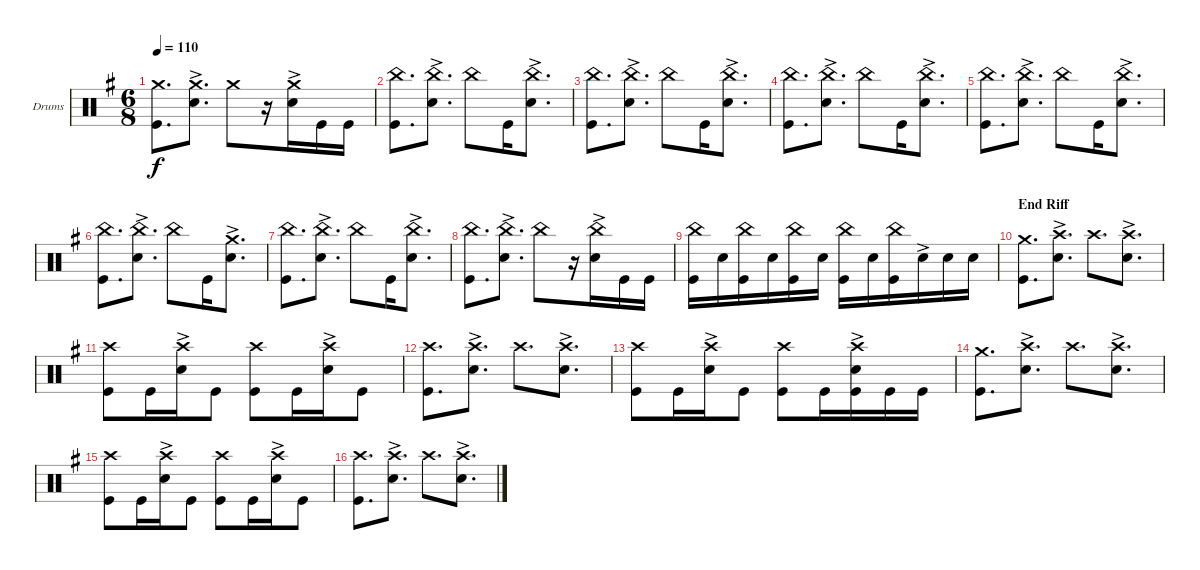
\bracketExtendMode groupsimilarinstruments
\firstSystemTrackNameOrientation horizontal
\otherSystemsTrackNameOrientation horizontal
\track ("Drumkit" "Drums") {instrument percussion}
\staff {score}
\articulation defaults
\ts (6 8)
\tempo 110
\clef neutral
\ks eminor
("Kick (hit)" "Crash medium (hit)").8{d dy f} ("Snare (hit) 2"{ac} "Crash medium (hit)").8{d} "Crash medium (hit)".8 r.16 ("Snare (hit) 2"{ac} "Crash medium (hit)").16 "Kick (hit)".16 "Kick (hit)".16 |
("Kick (hit)" "China (hit)").8{d} ("Snare (hit) 2"{ac} "China (hit)").8{d} "China (hit)".8 "Kick (hit)".16 ("Snare (hit) 2"{ac} "China (hit)").8{d} |
("Kick (hit)" "China (hit)").8{d} ("Snare (hit) 2"{ac} "China (hit)").8{d} "China (hit)".8 "Kick (hit)".16 ("Snare (hit) 2"{ac} "China (hit)").8{d} |
("Kick (hit)" "China (hit)").8{d} ("Snare (hit) 2"{ac} "China (hit)").8{d} "China (hit)".8 "Kick (hit)".16 ("Snare (hit) 2"{ac} "China (hit)").8{d} |
("Kick (hit)" "China (hit)").8{d} ("Snare (hit) 2"{ac} "China (hit)").8{d} "China (hit)".8 "Kick (hit)".16 ("Snare (hit) 2"{ac} "China (hit)").8{d} |
("Kick (hit)" "China (hit)").8{d} ("Snare (hit) 2"{ac} "China (hit)").8{d} "China (hit)".8 "Kick (hit)".16 ("Snare (hit) 2"{ac} "Crash medium (hit)").8{d} |
("Kick (hit)" "China (hit)").8{d} ("Snare (hit) 2"{ac} "China (hit)").8{d} "China (hit)".8 "Kick (hit)".16 ("Snare (hit) 2"{ac} "China (hit)").8{d} |
("Kick (hit)" "China (hit)").8{d} ("Snare (hit) 2"{ac} "China (hit)").8{d} "China (hit)".8 r.16 ("Snare (hit) 2"{ac} "China (hit)").16 "Kick (hit)".16 "Kick (hit)".16 |
("Kick (hit)" "China (hit)").16 "Snare (hit) 2".16 ("Kick (hit)" "China (hit)").16 "Snare (hit) 2".16 ("Kick (hit)" "China (hit)").16 "Snare (hit) 2".16 ("Kick (hit)" "China (hit)").16 "Snare (hit) 2".16 ("Kick (hit)" "China (hit)").16 "Snare (hit) 2"{ac}.16 "Snare (hit) 2".16 "Snare (hit) 2".16 |
\section ("" "End Riff")
("Kick (hit)" "Crash medium (hit)").8{d} ("Snare (hit) 2"{ac} "Crash high (hit)").8{d} "Crash high (hit)".8{d} ("Snare (hit) 2"{ac} "Crash high (hit)").8{d} |
("Kick (hit)" "Crash high (hit)").8 "Kick (hit)".16 ("Snare (hit) 2"{ac} "Crash high (hit)").16 "Kick (hit)".8 ("Kick (hit)" "Crash high (hit)").8 "Kick (hit)".16 ("Snare (hit) 2"{ac} "Crash high (hit)").16 "Kick (hit)".8 |
("Kick (hit)" "Crash high (hit)").8{d} ("Snare (hit) 2"{ac} "Crash high (hit)").8{d} "Crash high (hit)".8{d} ("Snare (hit) 2"{ac} "Crash high (hit)").8{d} |
("Kick (hit)" "Crash high (hit)").8 "Kick (hit)".16 ("Snare (hit) 2"{ac} "Crash high (hit)").16 "Kick (hit)".8 ("Kick (hit)" "Crash high (hit)").8 "Kick (hit)".16 ("Snare (hit) 2"{ac} "Crash high (hit)" "Kick (hit)").16 "Kick (hit)".16 "Kick (hit)".16 |
("Kick (hit)" "Crash medium (hit)").8{d} ("Snare (hit) 2"{ac} "Crash high (hit)").8{d} "Crash high (hit)".8{d} ("Snare (hit) 2"{ac} "Crash high (hit)").8{d} |
("Kick (hit)" "Crash high (hit)").8 "Kick (hit)".16 ("Snare (hit) 2"{ac} "Crash high (hit)").16 "Kick (hit)".8 ("Kick (hit)" "Crash high (hit)").8 "Kick (hit)".16 ("Snare (hit) 2"{ac} "Crash high (hit)").16 "Kick (hit)".8 |
("Kick (hit)" "Crash high (hit)").8{d} ("Snare (hit) 2"{ac} "Crash high (hit)").8{d} "Crash high (hit)".8{d} ("Snare (hit) 2"{ac} "Crash high (hit)").8{d}
